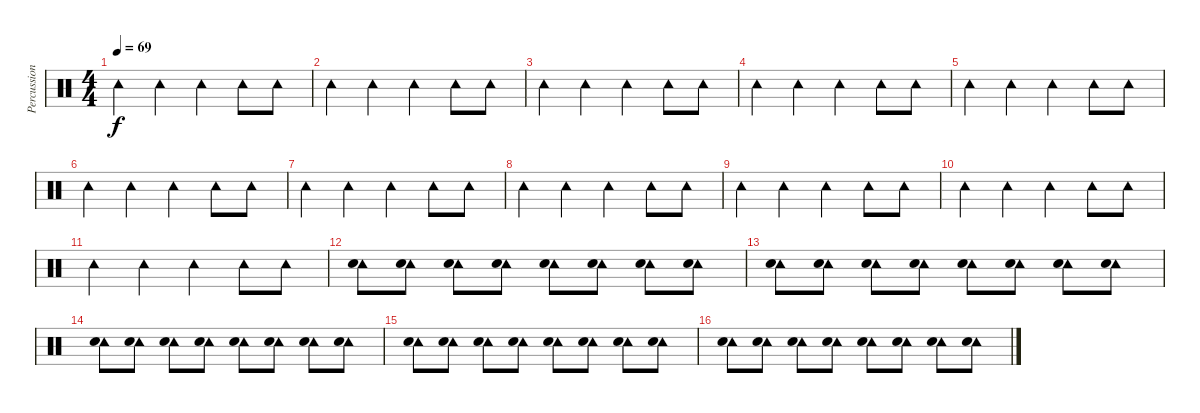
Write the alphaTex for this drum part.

\track ("Percussion" "Percussion") {instrument percussion}
\staff {score}
\articulation defaults
\ts (4 4)
\tempo 69
\clef neutral
\ks c "Tambourine (hit)".4{dy f} "Tambourine (hit)".4 "Tambourine (hit)".4 "Tambourine (hit)".8 "Tambourine (hit)".8
|
"Tambourine (hit)".4 "Tambourine (hit)".4 "Tambourine (hit)".4 "Tambourine (hit)".8 "Tambourine (hit)".8 |
"Tambourine (hit)".4 "Tambourine (hit)".4 "Tambourine (hit)".4 "Tambourine (hit)".8 "Tambourine (hit)".8 |
"Tambourine (hit)".4 "Tambourine (hit)".4 "Tambourine (hit)".4 "Tambourine (hit)".8 "Tambourine (hit)".8 |
"Tambourine (hit)".4 "Tambourine (hit)".4 "Tambourine (hit)".4 "Tambourine (hit)".8 "Tambourine (hit)".8 |
"Tambourine (hit)".4 "Tambourine (hit)".4 "Tambourine (hit)".4 "Tambourine (hit)".8 "Tambourine (hit)".8 |
"Tambourine (hit)".4 "Tambourine (hit)".4 "Tambourine (hit)".4 "Tambourine (hit)".8 "Tambourine (hit)".8 |
"Tambourine (hit)".4 "Tambourine (hit)".4 "Tambourine (hit)".4 "Tambourine (hit)".8 "Tambourine (hit)".8 |
"Tambourine (hit)".4 "Tambourine (hit)".4 "Tambourine (hit)".4 "Tambourine (hit)".8 "Tambourine (hit)".8 |
"Tambourine (hit)".4 "Tambourine (hit)".4 "Tambourine (hit)".4 "Tambourine (hit)".8 "Tambourine (hit)".8 |
"Tambourine (hit)".4 "Tambourine (hit)".4 "Tambourine (hit)".4 "Tambourine (hit)".8 "Tambourine (hit)".8 |
("Tambourine (hit)" "Snare (hit) 2").8 ("Tambourine (hit)" "Snare (hit) 2").8 ("Tambourine (hit)" "Snare (hit) 2").8 ("Tambourine (hit)" "Snare (hit) 2").8 ("Tambourine (hit)" "Snare (hit) 2").8 ("Tambourine (hit)" "Snare (hit) 2").8 ("Tambourine (hit)" "Snare (hit) 2").8 ("Tambourine (hit)" "Snare (hit) 2").8 |
("Tambourine (hit)" "Snare (hit) 2").8 ("Tambourine (hit)" "Snare (hit) 2").8 ("Tambourine (hit)" "Snare (hit) 2").8 ("Tambourine (hit)" "Snare (hit) 2").8 ("Tambourine (hit)" "Snare (hit) 2").8 ("Tambourine (hit)" "Snare (hit) 2").8 ("Tambourine (hit)" "Snare (hit) 2").8 ("Tambourine (hit)" "Snare (hit) 2").8 |
("Tambourine (hit)" "Snare (hit) 2").8 ("Tambourine (hit)" "Snare (hit) 2").8 ("Tambourine (hit)" "Snare (hit) 2").8 ("Tambourine (hit)" "Snare (hit) 2").8 ("Tambourine (hit)" "Snare (hit) 2").8 ("Tambourine (hit)" "Snare (hit) 2").8 ("Tambourine (hit)" "Snare (hit) 2").8 ("Tambourine (hit)" "Snare (hit) 2").8 |
("Tambourine (hit)" "Snare (hit) 2").8 ("Tambourine (hit)" "Snare (hit) 2").8 ("Tambourine (hit)" "Snare (hit) 2").8 ("Tambourine (hit)" "Snare (hit) 2").8 ("Tambourine (hit)" "Snare (hit) 2").8 ("Tambourine (hit)" "Snare (hit) 2").8 ("Tambourine (hit)" "Snare (hit) 2").8 ("Tambourine (hit)" "Snare (hit) 2").8 |
("Tambourine (hit)" "Snare (hit) 2").8 ("Tambourine (hit)" "Snare (hit) 2").8 ("Tambourine (hit)" "Snare (hit) 2").8 ("Tambourine (hit)" "Snare (hit) 2").8 ("Tambourine (hit)" "Snare (hit) 2").8 ("Tambourine (hit)" "Snare (hit) 2").8 ("Tambourine (hit)" "Snare (hit) 2").8 ("Tambourine (hit)" "Snare (hit) 2").8
